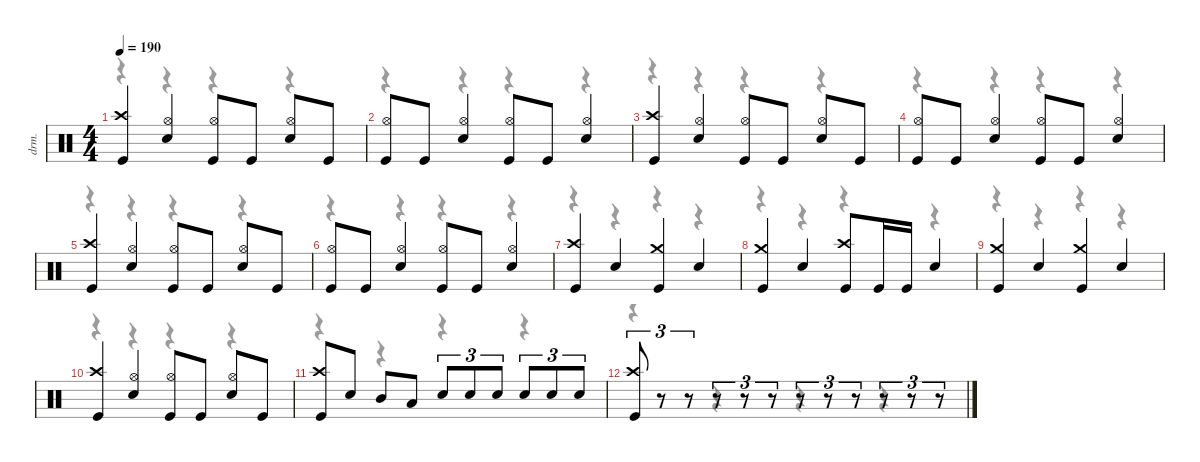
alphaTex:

\defaultSystemsLayout 4
\hideDynamics
\bracketExtendMode nobrackets
\track ("Drums" "drm.") {instrument percussion}
\staff {score}
\articulation defaults
\voice
\ts (4 4)
\tempo 190
\clef neutral
\ks c
("Crash high (hit)" "Kick (hit)").4{dy f beam Up} ("Hi-Hat (open)" "Snare (hit) 2").4{beam Up} ("Hi-Hat (open)" "Kick (hit)").8{beam Up} "Kick (hit)".8{beam Up} ("Hi-Hat (open)" "Snare (hit) 2").8{beam Up} "Kick (hit)".8{beam Up} |
("Hi-Hat (open)" "Kick (hit)").8{beam Up} "Kick (hit)".8{beam Up} ("Hi-Hat (open)" "Snare (hit) 2").4{beam Up} ("Hi-Hat (open)" "Kick (hit)").8{beam Up} "Kick (hit)".8{beam Up} ("Hi-Hat (open)" "Snare (hit) 2").4{beam Up} |
("Crash high (hit)" "Kick (hit)").4{beam Up} ("Hi-Hat (open)" "Snare (hit) 2").4{beam Up} ("Hi-Hat (open)" "Kick (hit)").8{beam Up} "Kick (hit)".8{beam Up} ("Hi-Hat (open)" "Snare (hit) 2").8{beam Up} "Kick (hit)".8{beam Up} |
("Hi-Hat (open)" "Kick (hit)").8{beam Up} "Kick (hit)".8{beam Up} ("Hi-Hat (open)" "Snare (hit) 2").4{beam Up} ("Hi-Hat (open)" "Kick (hit)").8{beam Up} "Kick (hit)".8{beam Up} ("Hi-Hat (open)" "Snare (hit) 2").4{beam Up} |
("Crash high (hit)" "Kick (hit)").4{beam Up} ("Hi-Hat (open)" "Snare (hit) 2").4{beam Up} ("Hi-Hat (open)" "Kick (hit)").8{beam Up} "Kick (hit)".8{beam Up} ("Hi-Hat (open)" "Snare (hit) 2").8{beam Up} "Kick (hit)".8{beam Up} |
("Hi-Hat (open)" "Kick (hit)").8{beam Up} "Kick (hit)".8{beam Up} ("Hi-Hat (open)" "Snare (hit) 2").4{beam Up} ("Hi-Hat (open)" "Kick (hit)").8{beam Up} "Kick (hit)".8{beam Up} ("Hi-Hat (open)" "Snare (hit) 2").4{beam Up} |
("Crash high (hit)" "Kick (hit)").4{beam Up} "Snare (hit) 2".4{beam Up} ("Crash medium (hit)" "Kick (hit)").4{beam Up} "Snare (hit) 2".4{beam Up} |
("Crash medium (hit)" "Kick (hit)").4{beam Up} "Snare (hit) 2".4{beam Up} ("Crash high (hit)" "Kick (hit)").8{beam Up} "Kick (hit)".16{beam Up} "Kick (hit)".16{beam Up} "Snare (hit) 2".4{beam Up} |
("Crash medium (hit)" "Kick (hit)").4{beam Up} "Snare (hit) 2".4{beam Up} ("Crash medium (hit)" "Kick (hit)").4{beam Up} "Snare (hit) 2".4{beam Up} |
("Crash high (hit)" "Kick (hit)").4{beam Up} ("Hi-Hat (open)" "Snare (hit) 2").4{beam Up} ("Hi-Hat (open)" "Kick (hit)").8{beam Up} "Kick (hit)".8{beam Up} ("Hi-Hat (open)" "Snare (hit) 2").8{beam Up} "Kick (hit)".8{beam Up} |
("Crash high (hit)" "Kick (hit)").8{beam Up} "Snare (hit) 2".8{beam Up} "Mid Tom (hit)".8{beam Up} "Low Tom (hit)".8{beam Up} "Snare (hit) 2".8{tu (3 2) beam Up} "Snare (hit) 2".8{tu (3 2) beam Up} "Snare (hit) 2".8{tu (3 2) beam Up} "Snare (hit) 2".8{tu (3 2) beam Up} "Snare (hit) 2".8{tu (3 2) beam Up} "Snare (hit) 2".8{tu (3 2) beam Up} |
("Crash high (hit)" "Kick (hit)").8{tu (3 2) beam Up} r.8{tu (3 2) beam Up} r.8{tu (3 2) beam Up} r.8{tu (3 2) beam Up} r.8{tu (3 2) beam Up} r.8{tu (3 2) beam Up} r.8{tu (3 2) beam Up} r.8{tu (3 2) beam Up} r.8{tu (3 2) beam Up} r.8{tu (3 2) beam Up} r.8{tu (3 2) beam Up} r.8{tu (3 2) beam Up}
\voice
\clef neutral
\ottava regular
\simile none
\ks c
r.4{dy mf beam Down} r.4{beam Down} r.4{beam Down} r.4{beam Down} |
r.4{beam Down} r.4{beam Down} r.4{beam Down} r.4{beam Down} |
r.4{beam Down} r.4{beam Down} r.4{beam Down} r.4{beam Down} |
r.4{beam Down} r.4{beam Down} r.4{beam Down} r.4{beam Down} |
r.4{beam Down} r.4{beam Down} r.4{beam Down} r.4{beam Down} |
r.4{beam Down} r.4{beam Down} r.4{beam Down} r.4{beam Down} |
r.4{beam Down} r.4{beam Down} r.4{beam Down} r.4{beam Down} |
r.4{beam Down} r.4{beam Down} r.4{beam Down} r.4{beam Down} |
r.4{beam Down} r.4{beam Down} r.4{beam Down} r.4{beam Down} |
r.4{beam Down} r.4{beam Down} r.4{beam Down} r.4{beam Down} |
r.4{beam Down} r.4{beam Down} r.4{beam Down} r.4{beam Down} |
r.4{beam Down} r.4{beam Down} r.4{beam Down} r.4{beam Down}
